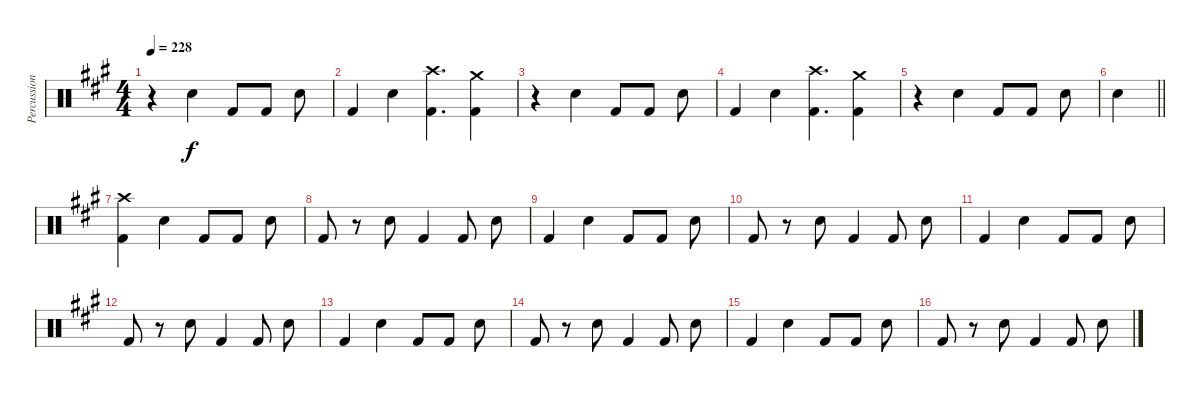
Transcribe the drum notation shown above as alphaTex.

\track ("Percussion" "Percussion") {instrument percussion}
\staff {score}
\articulation defaults
\ts (4 4)
\tempo 228
\clef neutral
\ks a
r.4{dy f} "Snare (hit) 2".4 "Kick (hit) 2".8 "Kick (hit) 2".8 "Snare (hit) 2".8 |
"Kick (hit) 2".4 "Snare (hit) 2".4 ("Crash high (hit)" "Kick (hit) 2").4{d} ("Crash medium (hit)" "Kick (hit) 2").4 |
r.4 "Snare (hit) 2".4 "Kick (hit) 2".8 "Kick (hit) 2".8 "Snare (hit) 2".8 |
"Kick (hit) 2".4 "Snare (hit) 2".4 ("Crash high (hit)" "Kick (hit) 2").4{d} ("Crash medium (hit)" "Kick (hit) 2").4 |
r.4 "Snare (hit) 2".4 "Kick (hit) 2".8 "Kick (hit) 2".8 "Snare (hit) 2".8 |
\barLineRight lightlight "Snare (hit) 2".4
|
("Kick (hit) 2" "Crash high (hit)").4 "Snare (hit) 2".4 "Kick (hit) 2".8 "Kick (hit) 2".8 "Snare (hit) 2".8 |
"Kick (hit) 2".8 r.8 "Snare (hit) 2".8 "Kick (hit) 2".4 "Kick (hit) 2".8 "Snare (hit) 2".8 |
"Kick (hit) 2".4 "Snare (hit) 2".4 "Kick (hit) 2".8 "Kick (hit) 2".8 "Snare (hit) 2".8 |
"Kick (hit) 2".8 r.8 "Snare (hit) 2".8 "Kick (hit) 2".4 "Kick (hit) 2".8 "Snare (hit) 2".8 |
"Kick (hit) 2".4 "Snare (hit) 2".4 "Kick (hit) 2".8 "Kick (hit) 2".8 "Snare (hit) 2".8 |
"Kick (hit) 2".8 r.8 "Snare (hit) 2".8 "Kick (hit) 2".4 "Kick (hit) 2".8 "Snare (hit) 2".8 |
"Kick (hit) 2".4 "Snare (hit) 2".4 "Kick (hit) 2".8 "Kick (hit) 2".8 "Snare (hit) 2".8 |
"Kick (hit) 2".8 r.8 "Snare (hit) 2".8 "Kick (hit) 2".4 "Kick (hit) 2".8 "Snare (hit) 2".8 |
"Kick (hit) 2".4 "Snare (hit) 2".4 "Kick (hit) 2".8 "Kick (hit) 2".8 "Snare (hit) 2".8 |
"Kick (hit) 2".8 r.8 "Snare (hit) 2".8 "Kick (hit) 2".4 "Kick (hit) 2".8 "Snare (hit) 2".8
